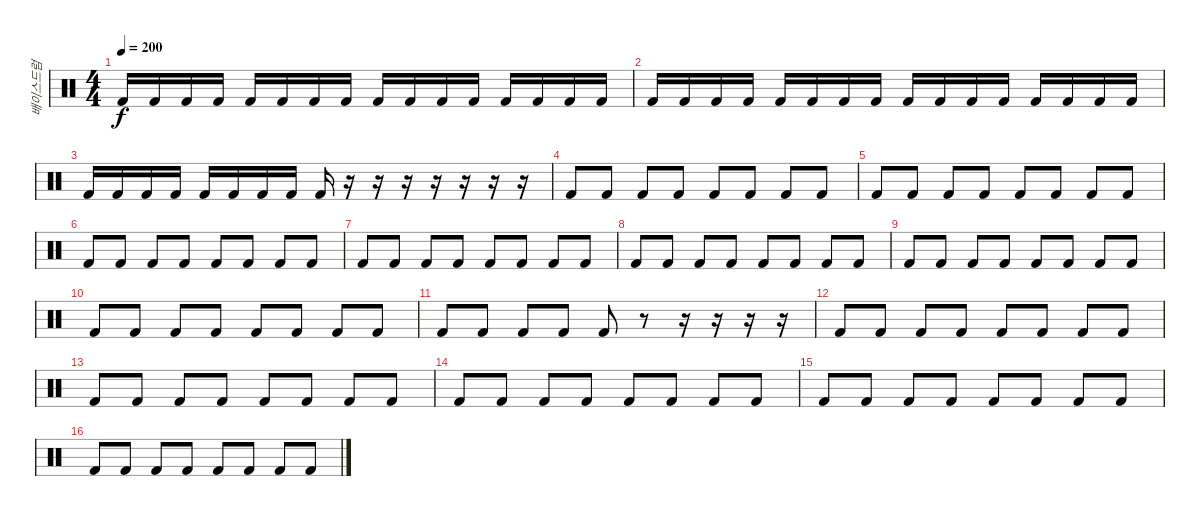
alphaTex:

\track ("배이스드럼" "배이스드럼") {instrument percussion}
\staff {score}
\articulation defaults
\ts (4 4)
\tempo 200
\clef neutral
\ks c "Kick (hit) 2".16{dy f} "Kick (hit) 2".16 "Kick (hit) 2".16 "Kick (hit) 2".16 "Kick (hit) 2".16 "Kick (hit) 2".16 "Kick (hit) 2".16 "Kick (hit) 2".16 "Kick (hit) 2".16 "Kick (hit) 2".16 "Kick (hit) 2".16 "Kick (hit) 2".16 "Kick (hit) 2".16 "Kick (hit) 2".16 "Kick (hit) 2".16 "Kick (hit) 2".16
|
"Kick (hit) 2".16 "Kick (hit) 2".16 "Kick (hit) 2".16 "Kick (hit) 2".16 "Kick (hit) 2".16 "Kick (hit) 2".16 "Kick (hit) 2".16 "Kick (hit) 2".16 "Kick (hit) 2".16 "Kick (hit) 2".16 "Kick (hit) 2".16 "Kick (hit) 2".16 "Kick (hit) 2".16 "Kick (hit) 2".16 "Kick (hit) 2".16 "Kick (hit) 2".16 |
"Kick (hit) 2".16 "Kick (hit) 2".16 "Kick (hit) 2".16 "Kick (hit) 2".16 "Kick (hit) 2".16 "Kick (hit) 2".16 "Kick (hit) 2".16 "Kick (hit) 2".16 "Kick (hit) 2".16 r.16 r.16 r.16 r.16 r.16 r.16 r.16 |
"Kick (hit) 2".8 "Kick (hit) 2".8 "Kick (hit) 2".8 "Kick (hit) 2".8 "Kick (hit) 2".8 "Kick (hit) 2".8 "Kick (hit) 2".8 "Kick (hit) 2".8 |
"Kick (hit) 2".8 "Kick (hit) 2".8 "Kick (hit) 2".8 "Kick (hit) 2".8 "Kick (hit) 2".8 "Kick (hit) 2".8 "Kick (hit) 2".8 "Kick (hit) 2".8 |
"Kick (hit) 2".8 "Kick (hit) 2".8 "Kick (hit) 2".8 "Kick (hit) 2".8 "Kick (hit) 2".8 "Kick (hit) 2".8 "Kick (hit) 2".8 "Kick (hit) 2".8 |
"Kick (hit) 2".8 "Kick (hit) 2".8 "Kick (hit) 2".8 "Kick (hit) 2".8 "Kick (hit) 2".8 "Kick (hit) 2".8 "Kick (hit) 2".8 "Kick (hit) 2".8 |
"Kick (hit) 2".8 "Kick (hit) 2".8 "Kick (hit) 2".8 "Kick (hit) 2".8 "Kick (hit) 2".8 "Kick (hit) 2".8 "Kick (hit) 2".8 "Kick (hit) 2".8 |
"Kick (hit) 2".8 "Kick (hit) 2".8 "Kick (hit) 2".8 "Kick (hit) 2".8 "Kick (hit) 2".8 "Kick (hit) 2".8 "Kick (hit) 2".8 "Kick (hit) 2".8 |
"Kick (hit) 2".8 "Kick (hit) 2".8 "Kick (hit) 2".8 "Kick (hit) 2".8 "Kick (hit) 2".8 "Kick (hit) 2".8 "Kick (hit) 2".8 "Kick (hit) 2".8 |
"Kick (hit) 2".8 "Kick (hit) 2".8 "Kick (hit) 2".8 "Kick (hit) 2".8 "Kick (hit) 2".8 r.8 r.16 r.16 r.16 r.16 |
"Kick (hit) 2".8 "Kick (hit) 2".8 "Kick (hit) 2".8 "Kick (hit) 2".8 "Kick (hit) 2".8 "Kick (hit) 2".8 "Kick (hit) 2".8 "Kick (hit) 2".8 |
"Kick (hit) 2".8 "Kick (hit) 2".8 "Kick (hit) 2".8 "Kick (hit) 2".8 "Kick (hit) 2".8 "Kick (hit) 2".8 "Kick (hit) 2".8 "Kick (hit) 2".8 |
"Kick (hit) 2".8 "Kick (hit) 2".8 "Kick (hit) 2".8 "Kick (hit) 2".8 "Kick (hit) 2".8 "Kick (hit) 2".8 "Kick (hit) 2".8 "Kick (hit) 2".8 |
"Kick (hit) 2".8 "Kick (hit) 2".8 "Kick (hit) 2".8 "Kick (hit) 2".8 "Kick (hit) 2".8 "Kick (hit) 2".8 "Kick (hit) 2".8 "Kick (hit) 2".8 |
"Kick (hit) 2".8 "Kick (hit) 2".8 "Kick (hit) 2".8 "Kick (hit) 2".8 "Kick (hit) 2".8 "Kick (hit) 2".8 "Kick (hit) 2".8 "Kick (hit) 2".8
